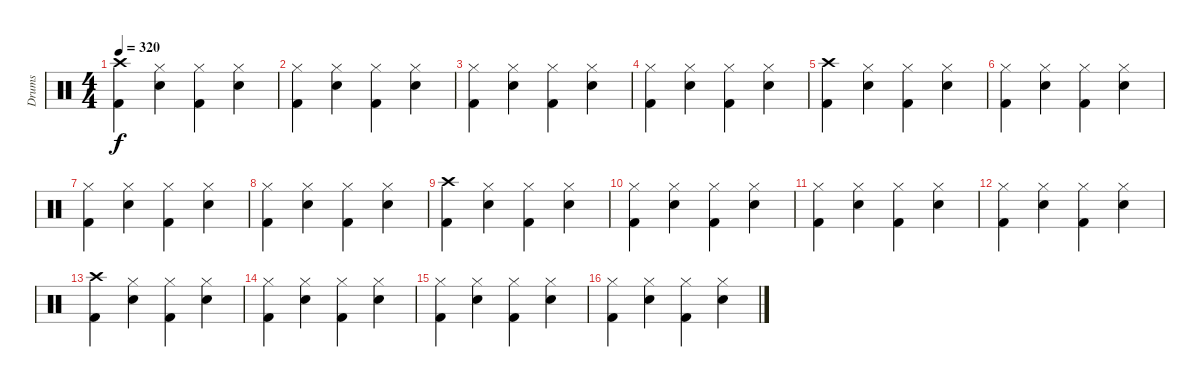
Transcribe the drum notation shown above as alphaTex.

\track ("Drums" "Drums") {instrument percussion}
\staff {score}
\articulation defaults
\ts (4 4)
\tempo 320
\clef neutral
\ks c
("Crash high (hit)" "Kick (hit) 2").4{dy f} ("Hi-Hat (closed)" "Snare (hit) 2").4 ("Hi-Hat (closed)" "Kick (hit) 2").4 ("Hi-Hat (closed)" "Snare (hit) 2").4 |
("Hi-Hat (closed)" "Kick (hit) 2").4 ("Hi-Hat (closed)" "Snare (hit) 2").4 ("Hi-Hat (closed)" "Kick (hit) 2").4 ("Hi-Hat (closed)" "Snare (hit) 2").4 |
("Hi-Hat (closed)" "Kick (hit) 2").4 ("Hi-Hat (closed)" "Snare (hit) 2").4 ("Hi-Hat (closed)" "Kick (hit) 2").4 ("Hi-Hat (closed)" "Snare (hit) 2").4 |
("Hi-Hat (closed)" "Kick (hit) 2").4 ("Hi-Hat (closed)" "Snare (hit) 2").4 ("Hi-Hat (closed)" "Kick (hit) 2").4 ("Hi-Hat (closed)" "Snare (hit) 2").4 |
("Crash high (hit)" "Kick (hit) 2").4 ("Hi-Hat (closed)" "Snare (hit) 2").4 ("Hi-Hat (closed)" "Kick (hit) 2").4 ("Hi-Hat (closed)" "Snare (hit) 2").4 |
("Hi-Hat (closed)" "Kick (hit) 2").4 ("Hi-Hat (closed)" "Snare (hit) 2").4 ("Hi-Hat (closed)" "Kick (hit) 2").4 ("Hi-Hat (closed)" "Snare (hit) 2").4 |
("Hi-Hat (closed)" "Kick (hit) 2").4 ("Hi-Hat (closed)" "Snare (hit) 2").4 ("Hi-Hat (closed)" "Kick (hit) 2").4 ("Hi-Hat (closed)" "Snare (hit) 2").4 |
("Hi-Hat (closed)" "Kick (hit) 2").4 ("Hi-Hat (closed)" "Snare (hit) 2").4 ("Hi-Hat (closed)" "Kick (hit) 2").4 ("Hi-Hat (closed)" "Snare (hit) 2").4 |
("Crash high (hit)" "Kick (hit) 2").4 ("Hi-Hat (closed)" "Snare (hit) 2").4 ("Hi-Hat (closed)" "Kick (hit) 2").4 ("Hi-Hat (closed)" "Snare (hit) 2").4 |
("Hi-Hat (closed)" "Kick (hit) 2").4 ("Hi-Hat (closed)" "Snare (hit) 2").4 ("Hi-Hat (closed)" "Kick (hit) 2").4 ("Hi-Hat (closed)" "Snare (hit) 2").4 |
("Hi-Hat (closed)" "Kick (hit) 2").4 ("Hi-Hat (closed)" "Snare (hit) 2").4 ("Hi-Hat (closed)" "Kick (hit) 2").4 ("Hi-Hat (closed)" "Snare (hit) 2").4 |
("Hi-Hat (closed)" "Kick (hit) 2").4 ("Hi-Hat (closed)" "Snare (hit) 2").4 ("Hi-Hat (closed)" "Kick (hit) 2").4 ("Hi-Hat (closed)" "Snare (hit) 2").4 |
("Crash high (hit)" "Kick (hit) 2").4 ("Hi-Hat (closed)" "Snare (hit) 2").4 ("Hi-Hat (closed)" "Kick (hit) 2").4 ("Hi-Hat (closed)" "Snare (hit) 2").4 |
("Hi-Hat (closed)" "Kick (hit) 2").4 ("Hi-Hat (closed)" "Snare (hit) 2").4 ("Hi-Hat (closed)" "Kick (hit) 2").4 ("Hi-Hat (closed)" "Snare (hit) 2").4 |
("Hi-Hat (closed)" "Kick (hit) 2").4 ("Hi-Hat (closed)" "Snare (hit) 2").4 ("Hi-Hat (closed)" "Kick (hit) 2").4 ("Hi-Hat (closed)" "Snare (hit) 2").4 |
("Hi-Hat (closed)" "Kick (hit) 2").4 ("Hi-Hat (closed)" "Snare (hit) 2").4 ("Hi-Hat (closed)" "Kick (hit) 2").4 ("Hi-Hat (closed)" "Snare (hit) 2").4
